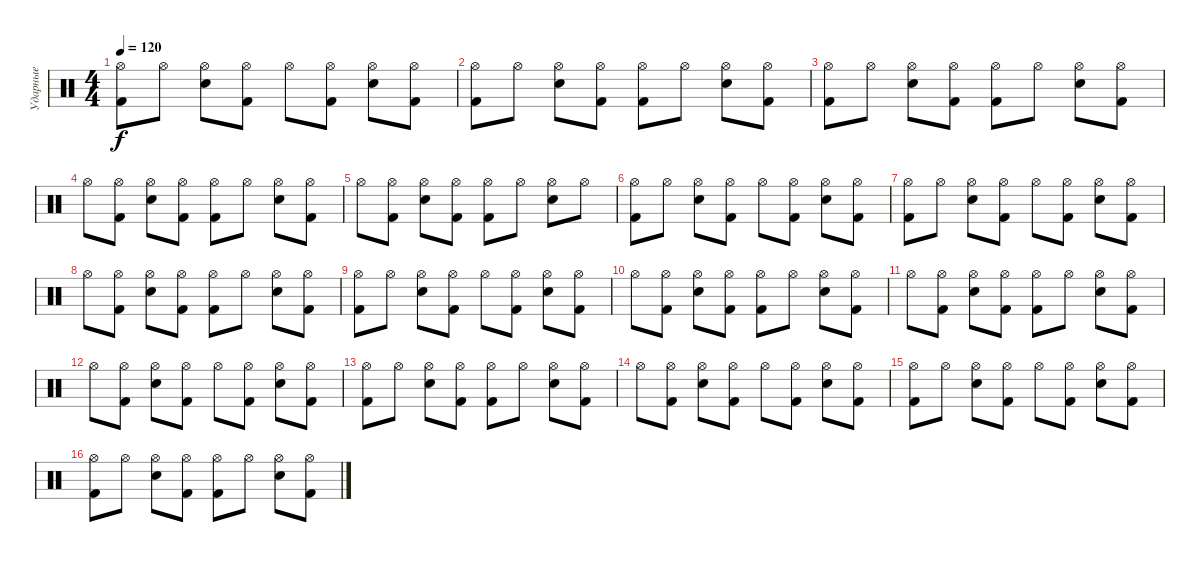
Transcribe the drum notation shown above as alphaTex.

\track ("Ударные" "Ударные") {instrument percussion}
\staff {score}
\articulation defaults
\ts (4 4)
\tempo 120
\clef neutral
\ks c
("Hi-Hat (open)" "Kick (hit) 2").8{dy f} "Hi-Hat (open)".8 ("Hi-Hat (open)" "Electric Snare (hit)").8 ("Hi-Hat (open)" "Kick (hit) 2").8 "Hi-Hat (open)".8 ("Hi-Hat (open)" "Kick (hit) 2").8 ("Hi-Hat (open)" "Electric Snare (hit)").8 ("Hi-Hat (open)" "Kick (hit) 2").8 |
("Hi-Hat (open)" "Kick (hit) 2").8 "Hi-Hat (open)".8 ("Hi-Hat (open)" "Electric Snare (hit)").8 ("Hi-Hat (open)" "Kick (hit) 2").8 ("Hi-Hat (open)" "Kick (hit) 2").8 "Hi-Hat (open)".8 ("Hi-Hat (open)" "Electric Snare (hit)").8 ("Hi-Hat (open)" "Kick (hit) 2").8 |
("Hi-Hat (open)" "Kick (hit) 2").8 "Hi-Hat (open)".8 ("Hi-Hat (open)" "Electric Snare (hit)").8 ("Hi-Hat (open)" "Kick (hit) 2").8 ("Hi-Hat (open)" "Kick (hit) 2").8 "Hi-Hat (open)".8 ("Hi-Hat (open)" "Electric Snare (hit)").8 ("Hi-Hat (open)" "Kick (hit) 2").8 |
"Hi-Hat (open)".8 ("Hi-Hat (open)" "Kick (hit) 2").8 ("Hi-Hat (open)" "Electric Snare (hit)").8 ("Hi-Hat (open)" "Kick (hit) 2").8 ("Hi-Hat (open)" "Kick (hit) 2").8 "Hi-Hat (open)".8 ("Hi-Hat (open)" "Electric Snare (hit)").8 ("Hi-Hat (open)" "Kick (hit) 2").8 |
"Hi-Hat (open)".8 ("Hi-Hat (open)" "Kick (hit) 2").8 ("Hi-Hat (open)" "Electric Snare (hit)").8 ("Hi-Hat (open)" "Kick (hit) 2").8 ("Hi-Hat (open)" "Kick (hit) 2").8 "Hi-Hat (open)".8 ("Hi-Hat (open)" "Electric Snare (hit)").8 "Hi-Hat (open)".8 |
("Hi-Hat (open)" "Kick (hit) 2").8 "Hi-Hat (open)".8 ("Hi-Hat (open)" "Electric Snare (hit)").8 ("Hi-Hat (open)" "Kick (hit) 2").8 "Hi-Hat (open)".8 ("Hi-Hat (open)" "Kick (hit) 2").8 ("Hi-Hat (open)" "Electric Snare (hit)").8 ("Hi-Hat (open)" "Kick (hit) 2").8 |
("Hi-Hat (open)" "Kick (hit) 2").8 "Hi-Hat (open)".8 ("Hi-Hat (open)" "Electric Snare (hit)").8 ("Hi-Hat (open)" "Kick (hit) 2").8 "Hi-Hat (open)".8 ("Hi-Hat (open)" "Kick (hit) 2").8 ("Hi-Hat (open)" "Electric Snare (hit)").8 ("Hi-Hat (open)" "Kick (hit) 2").8 |
"Hi-Hat (open)".8 ("Hi-Hat (open)" "Kick (hit) 2").8 ("Hi-Hat (open)" "Electric Snare (hit)").8 ("Hi-Hat (open)" "Kick (hit) 2").8 ("Hi-Hat (open)" "Kick (hit) 2").8 "Hi-Hat (open)".8 ("Hi-Hat (open)" "Electric Snare (hit)").8 ("Hi-Hat (open)" "Kick (hit) 2").8 |
("Hi-Hat (open)" "Kick (hit) 2").8 "Hi-Hat (open)".8 ("Hi-Hat (open)" "Electric Snare (hit)").8 ("Hi-Hat (open)" "Kick (hit) 2").8 "Hi-Hat (open)".8 ("Hi-Hat (open)" "Kick (hit) 2").8 ("Hi-Hat (open)" "Electric Snare (hit)").8 ("Hi-Hat (open)" "Kick (hit) 2").8 |
"Hi-Hat (open)".8 ("Hi-Hat (open)" "Kick (hit) 2").8 ("Hi-Hat (open)" "Electric Snare (hit)").8 ("Hi-Hat (open)" "Kick (hit) 2").8 ("Hi-Hat (open)" "Kick (hit) 2").8 "Hi-Hat (open)".8 ("Hi-Hat (open)" "Electric Snare (hit)").8 ("Hi-Hat (open)" "Kick (hit) 2").8 |
"Hi-Hat (open)".8 ("Hi-Hat (open)" "Kick (hit) 2").8 ("Hi-Hat (open)" "Electric Snare (hit)").8 ("Hi-Hat (open)" "Kick (hit) 2").8 ("Hi-Hat (open)" "Kick (hit) 2").8 "Hi-Hat (open)".8 ("Hi-Hat (open)" "Electric Snare (hit)").8 ("Hi-Hat (open)" "Kick (hit) 2").8 |
"Hi-Hat (open)".8 ("Hi-Hat (open)" "Kick (hit) 2").8 ("Hi-Hat (open)" "Electric Snare (hit)").8 ("Hi-Hat (open)" "Kick (hit) 2").8 "Hi-Hat (open)".8 ("Hi-Hat (open)" "Kick (hit) 2").8 ("Hi-Hat (open)" "Electric Snare (hit)").8 ("Hi-Hat (open)" "Kick (hit) 2").8 |
("Hi-Hat (open)" "Kick (hit) 2").8 "Hi-Hat (open)".8 ("Hi-Hat (open)" "Electric Snare (hit)").8 ("Hi-Hat (open)" "Kick (hit) 2").8 ("Hi-Hat (open)" "Kick (hit) 2").8 "Hi-Hat (open)".8 ("Hi-Hat (open)" "Electric Snare (hit)").8 ("Hi-Hat (open)" "Kick (hit) 2").8 |
"Hi-Hat (open)".8 ("Hi-Hat (open)" "Kick (hit) 2").8 ("Hi-Hat (open)" "Electric Snare (hit)").8 ("Hi-Hat (open)" "Kick (hit) 2").8 "Hi-Hat (open)".8 ("Hi-Hat (open)" "Kick (hit) 2").8 ("Hi-Hat (open)" "Electric Snare (hit)").8 ("Hi-Hat (open)" "Kick (hit) 2").8 |
("Hi-Hat (open)" "Kick (hit) 2").8 "Hi-Hat (open)".8 ("Hi-Hat (open)" "Electric Snare (hit)").8 ("Hi-Hat (open)" "Kick (hit) 2").8 "Hi-Hat (open)".8 ("Hi-Hat (open)" "Kick (hit) 2").8 ("Hi-Hat (open)" "Electric Snare (hit)").8 ("Hi-Hat (open)" "Kick (hit) 2").8 |
("Hi-Hat (open)" "Kick (hit) 2").8 "Hi-Hat (open)".8 ("Hi-Hat (open)" "Electric Snare (hit)").8 ("Hi-Hat (open)" "Kick (hit) 2").8 ("Hi-Hat (open)" "Kick (hit) 2").8 "Hi-Hat (open)".8 ("Hi-Hat (open)" "Electric Snare (hit)").8 ("Hi-Hat (open)" "Kick (hit) 2").8
